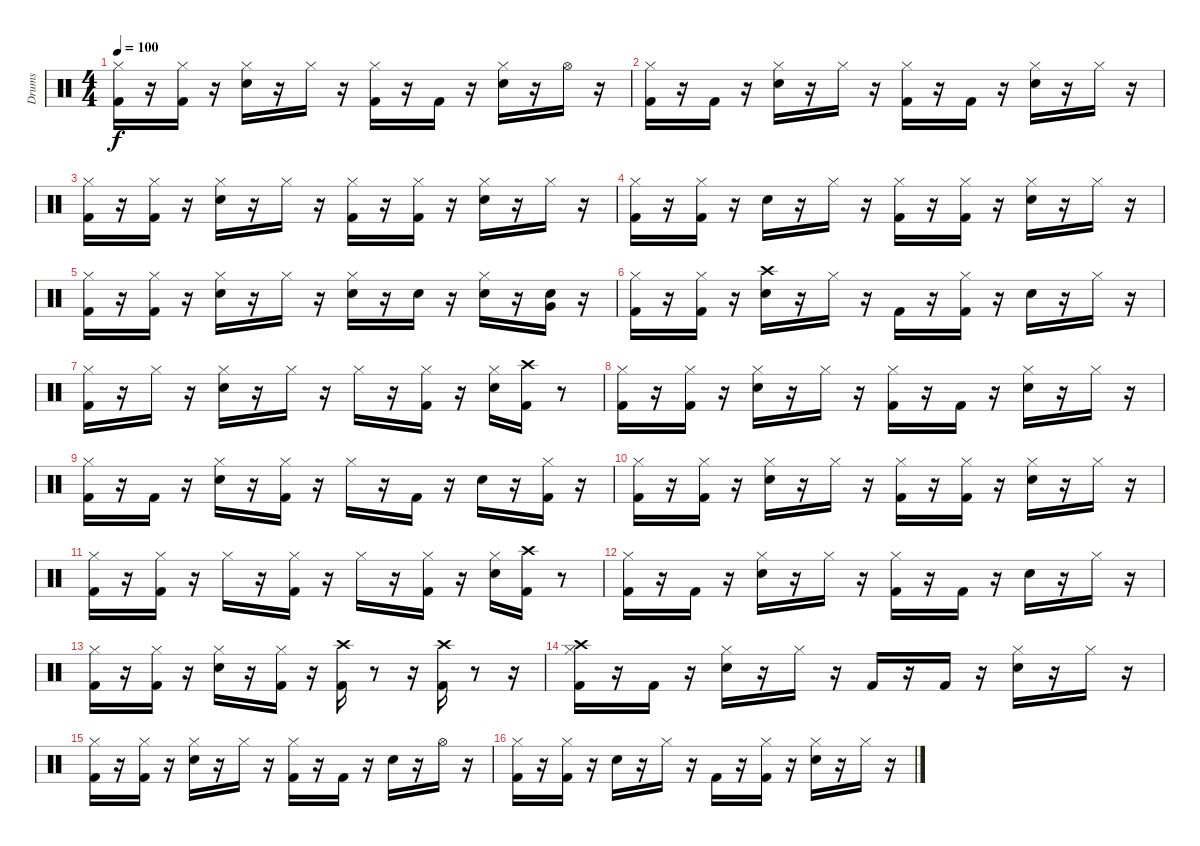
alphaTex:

\track ("Drums" "Drums") {instrument percussion}
\staff {score}
\articulation defaults
\ts (4 4)
\tempo 100
\clef neutral
\ks c
("Kick (hit) 2" "Hi-Hat (closed)").16{dy f} r.16 ("Kick (hit) 2" "Hi-Hat (closed)").16 r.16 ("Snare (hit) 2" "Hi-Hat (closed)").16 r.16 "Hi-Hat (closed)".16 r.16 ("Kick (hit) 2" "Hi-Hat (closed)").16 r.16 "Kick (hit) 2".16 r.16 ("Snare (hit) 2" "Hi-Hat (closed)").16 r.16 "Hi-Hat (open)".16 r.16 |
("Kick (hit) 2" "Hi-Hat (closed)").16 r.16 "Kick (hit) 2".16 r.16 ("Snare (hit) 2" "Hi-Hat (closed)").16 r.16 "Hi-Hat (closed)".16 r.16 ("Kick (hit) 2" "Hi-Hat (closed)").16 r.16 "Kick (hit) 2".16 r.16 ("Snare (hit) 2" "Hi-Hat (closed)").16 r.16 "Hi-Hat (closed)".16 r.16 |
("Kick (hit) 2" "Hi-Hat (closed)").16 r.16 ("Kick (hit) 2" "Hi-Hat (closed)").16 r.16 ("Snare (hit) 2" "Hi-Hat (closed)").16 r.16 "Hi-Hat (closed)".16 r.16 ("Kick (hit) 2" "Hi-Hat (closed)").16 r.16 ("Kick (hit) 2" "Hi-Hat (closed)").16 r.16 ("Snare (hit) 2" "Hi-Hat (closed)").16 r.16 "Hi-Hat (closed)".16 r.16 |
("Kick (hit) 2" "Hi-Hat (closed)").16 r.16 ("Kick (hit) 2" "Hi-Hat (closed)").16 r.16 "Snare (hit) 2".16 r.16 "Hi-Hat (closed)".16 r.16 ("Kick (hit) 2" "Hi-Hat (closed)").16 r.16 ("Kick (hit) 2" "Hi-Hat (closed)").16 r.16 ("Snare (hit) 2" "Hi-Hat (closed)").16 r.16 "Hi-Hat (closed)".16 r.16 |
("Kick (hit) 2" "Hi-Hat (closed)").16 r.16 ("Kick (hit) 2" "Hi-Hat (closed)").16 r.16 ("Snare (hit) 2" "Hi-Hat (closed)").16 r.16 "Hi-Hat (closed)".16 r.16 ("Snare (hit) 2" "Hi-Hat (closed)").16 r.16 "Snare (hit) 2".16 r.16 ("Snare (hit) 2" "Hi-Hat (closed)").16 r.16 ("Snare (hit) 2" "Very Low Tom (hit)").16 r.16 |
("Kick (hit) 2" "Hi-Hat (closed)").16 r.16 ("Kick (hit) 2" "Hi-Hat (closed)").16 r.16 ("Snare (hit) 2" "Crash high (hit)").16 r.16 "Hi-Hat (closed)".16 r.16 "Kick (hit) 2".16 r.16 ("Kick (hit) 2" "Hi-Hat (closed)").16 r.16 "Snare (hit) 2".16 r.16 "Hi-Hat (closed)".16 r.16 |
("Kick (hit) 2" "Hi-Hat (closed)").16 r.16 "Hi-Hat (closed)".16 r.16 ("Snare (hit) 2" "Hi-Hat (closed)").16 r.16 "Hi-Hat (closed)".16 r.16 "Hi-Hat (closed)".16 r.16 ("Kick (hit) 2" "Hi-Hat (closed)").16 r.16 ("Snare (hit) 2" "Hi-Hat (closed)").16 ("Kick (hit) 2" "Crash high (hit)").16 r.8 |
("Kick (hit) 2" "Hi-Hat (closed)").16 r.16 ("Kick (hit) 2" "Hi-Hat (closed)").16 r.16 ("Snare (hit) 2" "Hi-Hat (closed)").16 r.16 "Hi-Hat (closed)".16 r.16 ("Kick (hit) 2" "Hi-Hat (closed)").16 r.16 "Kick (hit) 2".16 r.16 ("Snare (hit) 2" "Hi-Hat (closed)").16 r.16 "Hi-Hat (closed)".16 r.16 |
("Kick (hit) 2" "Hi-Hat (closed)").16 r.16 "Kick (hit) 2".16 r.16 ("Snare (hit) 2" "Hi-Hat (closed)").16 r.16 ("Kick (hit) 2" "Hi-Hat (closed)").16 r.16 "Hi-Hat (closed)".16 r.16 "Kick (hit) 2".16 r.16 "Snare (hit) 2".16 r.16 ("Kick (hit) 2" "Hi-Hat (closed)").16 r.16 |
("Kick (hit) 2" "Hi-Hat (closed)").16 r.16 ("Kick (hit) 2" "Hi-Hat (closed)").16 r.16 ("Snare (hit) 2" "Hi-Hat (closed)").16 r.16 "Hi-Hat (closed)".16 r.16 ("Kick (hit) 2" "Hi-Hat (closed)").16 r.16 ("Kick (hit) 2" "Hi-Hat (closed)").16 r.16 ("Snare (hit) 2" "Hi-Hat (closed)").16 r.16 "Hi-Hat (closed)".16 r.16 |
("Kick (hit) 2" "Hi-Hat (closed)").16 r.16 ("Kick (hit) 2" "Hi-Hat (closed)").16 r.16 "Hi-Hat (closed)".16 r.16 ("Kick (hit) 2" "Hi-Hat (closed)").16 r.16 "Hi-Hat (closed)".16 r.16 ("Kick (hit) 2" "Hi-Hat (closed)").16 r.16 ("Snare (hit) 2" "Hi-Hat (closed)").16 ("Kick (hit) 2" "Crash high (hit)").16 r.8 |
("Kick (hit) 2" "Hi-Hat (closed)").16 r.16 "Kick (hit) 2".16 r.16 ("Snare (hit) 2" "Hi-Hat (closed)").16 r.16 "Hi-Hat (closed)".16 r.16 ("Kick (hit) 2" "Hi-Hat (closed)").16 r.16 "Kick (hit) 2".16 r.16 "Snare (hit) 2".16 r.16 "Hi-Hat (closed)".16 r.16 |
("Kick (hit) 2" "Hi-Hat (closed)").16 r.16 ("Kick (hit) 2" "Hi-Hat (closed)").16 r.16 ("Snare (hit) 2" "Hi-Hat (closed)").16 r.16 ("Kick (hit) 2" "Hi-Hat (closed)").16 r.16 ("Kick (hit) 2" "Crash high (hit)").16 r.8 r.16 ("Kick (hit) 2" "Crash high (hit)").16 r.8 r.16 |
("Kick (hit) 2" "Hi-Hat (closed)" "Crash high (hit)").16 r.16 "Kick (hit) 2".16 r.16 ("Snare (hit) 2" "Hi-Hat (closed)").16 r.16 "Hi-Hat (closed)".16 r.16 "Kick (hit) 2".16 r.16 "Kick (hit) 2".16 r.16 ("Snare (hit) 2" "Hi-Hat (closed)").16 r.16 "Hi-Hat (closed)".16 r.16 |
("Kick (hit) 2" "Hi-Hat (closed)").16 r.16 ("Kick (hit) 2" "Hi-Hat (closed)").16 r.16 ("Snare (hit) 2" "Hi-Hat (closed)").16 r.16 "Hi-Hat (closed)".16 r.16 ("Kick (hit) 2" "Hi-Hat (closed)").16 r.16 "Kick (hit) 2".16 r.16 "Snare (hit) 2".16 r.16 "Hi-Hat (open)".16 r.16 |
("Kick (hit) 2" "Hi-Hat (closed)").16 r.16 ("Kick (hit) 2" "Hi-Hat (closed)").16 r.16 "Snare (hit) 2".16 r.16 "Hi-Hat (closed)".16 r.16 "Kick (hit) 2".16 r.16 ("Kick (hit) 2" "Hi-Hat (closed)").16 r.16 ("Snare (hit) 2" "Hi-Hat (closed)").16 r.16 "Hi-Hat (closed)".16 r.16
